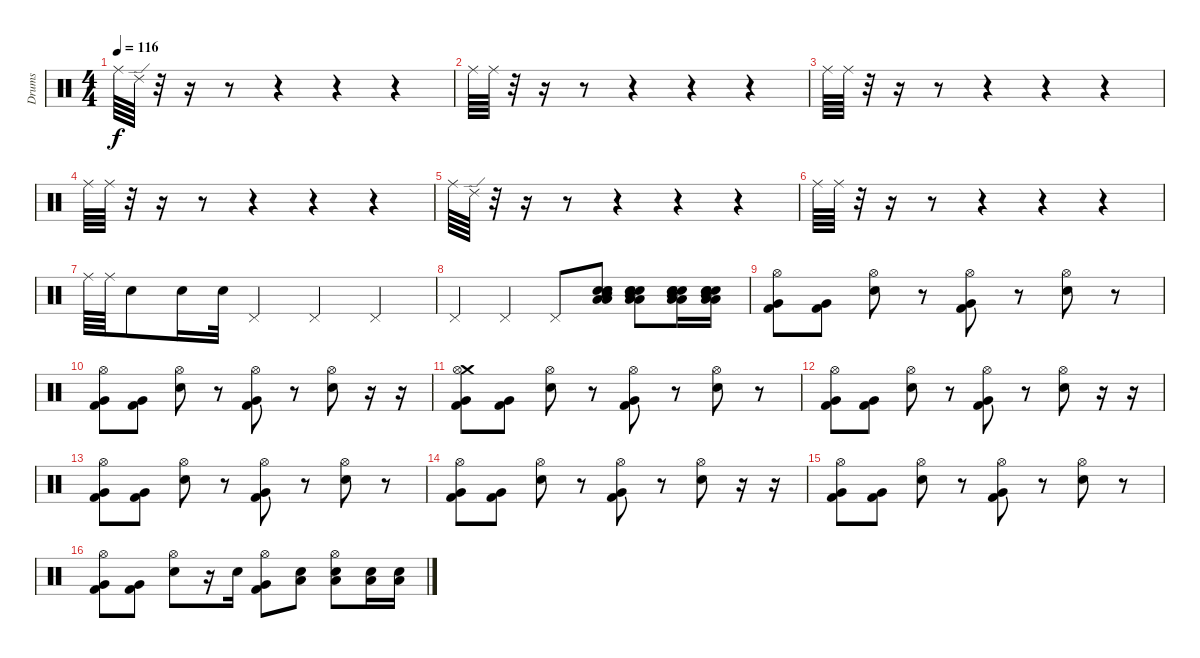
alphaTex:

\track ("Drums" "Drums") {instrument percussion}
\staff {score}
\articulation defaults
\ts (4 4)
\tempo 116
\clef neutral
\ks c "Ride (middle)".64{dy f} "Ride (edge) 2".64
r.32 r.16 r.8 r.4 r.4 r.4 |
"Ride (middle)".64 "Ride (middle)".64 r.32 r.16 r.8 r.4 r.4 r.4 |
"Ride (middle)".64 "Ride (middle)".64 r.32 r.16 r.8 r.4 r.4 r.4 |
"Ride (middle)".64 "Ride (middle)".64 r.32 r.16 r.8 r.4 r.4 r.4 |
"Ride (middle)".64 "Ride (edge) 2".64 r.32 r.16 r.8 r.4 r.4 r.4 |
"Ride (middle)".64 "Ride (middle)".64 r.32 r.16 r.8 r.4 r.4 r.4 |
"Ride (middle)".64 "Ride (middle)".64 "Snare (hit)"{x}.8 "Snare (hit)"{x}.16 "Snare (hit)"{x}.32 "Pedal Hi-Hat (hit)".4 "Pedal Hi-Hat (hit)".4 "Pedal Hi-Hat (hit)".4 |
"Pedal Hi-Hat (hit)".4 "Pedal Hi-Hat (hit)".4 "Pedal Hi-Hat (hit)".8 ("Snare (hit) 2" "Low Tom (hit)" "Mid Tom (hit)" "Electric Snare (hit)" "Snare (hit) 2" "Low Floor Tom (hit)").8 ("Snare (hit) 2" "Low Tom (hit)" "Mid Tom (hit)" "Electric Snare (hit)" "Snare (hit) 2" "Low Floor Tom (hit)").8 ("Snare (hit) 2" "Low Tom (hit)" "Mid Tom (hit)" "Electric Snare (hit)" "Snare (hit) 2" "Low Floor Tom (hit)").16 ("Snare (hit) 2" "Low Tom (hit)" "Mid Tom (hit)" "Electric Snare (hit)" "Snare (hit) 2" "Low Floor Tom (hit)").16 |
("Hi-Hat (open)" "Very Low Tom (hit)" "Kick (hit) 2").8 ("Very Low Tom (hit)" "Kick (hit) 2").8 ("Hi-Hat (open)" "Snare (hit) 2").8 r.8 ("Hi-Hat (open)" "Very Low Tom (hit)" "Kick (hit) 2").8 r.8 ("Hi-Hat (open)" "Snare (hit) 2").8 r.8 |
("Hi-Hat (open)" "Very Low Tom (hit)" "Kick (hit) 2").8 ("Very Low Tom (hit)" "Kick (hit) 2").8 ("Hi-Hat (open)" "Snare (hit) 2").8 r.8 ("Hi-Hat (open)" "Very Low Tom (hit)" "Kick (hit) 2").8 r.8 ("Hi-Hat (open)" "Snare (hit) 2").8 r.16 r.16 |
("Crash medium (hit)" "Hi-Hat (open)" "Very Low Tom (hit)" "Kick (hit) 2").8 ("Very Low Tom (hit)" "Kick (hit) 2").8 ("Hi-Hat (open)" "Snare (hit) 2").8 r.8 ("Hi-Hat (open)" "Very Low Tom (hit)" "Kick (hit) 2").8 r.8 ("Hi-Hat (open)" "Snare (hit) 2").8 r.8 |
("Hi-Hat (open)" "Very Low Tom (hit)" "Kick (hit) 2").8 ("Very Low Tom (hit)" "Kick (hit) 2").8 ("Hi-Hat (open)" "Snare (hit) 2").8 r.8 ("Hi-Hat (open)" "Very Low Tom (hit)" "Kick (hit) 2").8 r.8 ("Hi-Hat (open)" "Snare (hit) 2").8 r.16 r.16 |
("Hi-Hat (open)" "Very Low Tom (hit)" "Kick (hit) 2").8 ("Very Low Tom (hit)" "Kick (hit) 2").8 ("Hi-Hat (open)" "Snare (hit) 2").8 r.8 ("Hi-Hat (open)" "Very Low Tom (hit)" "Kick (hit) 2").8 r.8 ("Hi-Hat (open)" "Snare (hit) 2").8 r.8 |
("Hi-Hat (open)" "Very Low Tom (hit)" "Kick (hit) 2").8 ("Very Low Tom (hit)" "Kick (hit) 2").8 ("Hi-Hat (open)" "Snare (hit) 2").8 r.8 ("Hi-Hat (open)" "Very Low Tom (hit)" "Kick (hit) 2").8 r.8 ("Hi-Hat (open)" "Snare (hit) 2").8 r.16 r.16 |
("Hi-Hat (open)" "Very Low Tom (hit)" "Kick (hit) 2").8 ("Very Low Tom (hit)" "Kick (hit) 2").8 ("Hi-Hat (open)" "Snare (hit) 2").8 r.8 ("Hi-Hat (open)" "Very Low Tom (hit)" "Kick (hit) 2").8 r.8 ("Hi-Hat (open)" "Snare (hit) 2").8 r.8 |
("Hi-Hat (open)" "Very Low Tom (hit)" "Kick (hit) 2").8 ("Very Low Tom (hit)" "Kick (hit) 2").8 ("Hi-Hat (open)" "Snare (hit) 2").8 r.16 "Snare (hit) 2".16 ("Hi-Hat (open)" "Very Low Tom (hit)" "Kick (hit) 2").8 ("Snare (hit) 2" "Low Floor Tom (hit)").8 ("Hi-Hat (open)" "Snare (hit) 2" "Low Floor Tom (hit)").8 ("Snare (hit) 2" "Low Floor Tom (hit)").16 ("Snare (hit) 2" "Low Floor Tom (hit)").16
